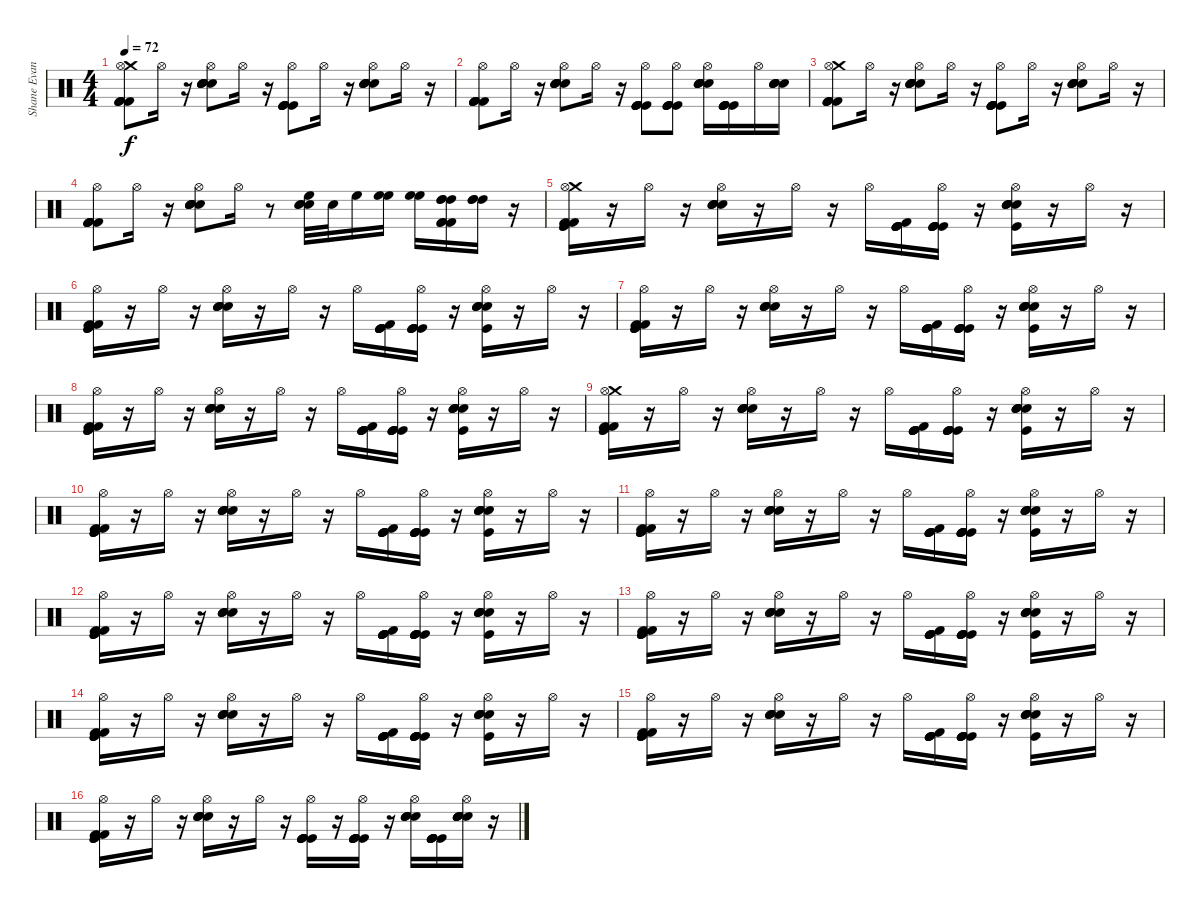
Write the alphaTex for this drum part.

\track ("Shane Evans" "Shane Evan") {instrument percussion}
\staff {score}
\articulation defaults
\ts (4 4)
\tempo 72
\clef neutral
\ks c
("Crash medium (hit)" "Kick (hit) 2" "Kick (hit) 2" "Kick (hit) 2" "Kick (hit) 2" "Hi-Hat (open)").8{dy f} "Hi-Hat (open)".16 r.16 ("Hi-Hat (open)" "Snare (hit) 2" "Snare (hit) 2" "Snare (hit) 2" "Snare (hit) 2" "Snare (hit) 2").8 "Hi-Hat (open)".16 r.16 ("Hi-Hat (open)" "Kick (hit)" "Kick (hit)" "Kick (hit)" "Kick (hit)" "Kick (hit)").8 "Hi-Hat (open)".16 r.16 ("Hi-Hat (open)" "Snare (hit) 2" "Snare (hit) 2" "Snare (hit) 2" "Snare (hit) 2" "Snare (hit) 2").8 "Hi-Hat (open)".16 r.16 |
("Kick (hit) 2" "Kick (hit) 2" "Kick (hit) 2" "Kick (hit) 2" "Hi-Hat (open)" "Kick (hit) 2").8 "Hi-Hat (open)".16 r.16 ("Hi-Hat (open)" "Snare (hit) 2" "Snare (hit) 2" "Snare (hit) 2" "Snare (hit) 2" "Snare (hit) 2").8 "Hi-Hat (open)".16 r.16 ("Hi-Hat (open)" "Kick (hit)" "Kick (hit)" "Kick (hit)" "Kick (hit)" "Kick (hit)").8 ("Hi-Hat (open)" "Kick (hit)" "Kick (hit)" "Kick (hit)" "Kick (hit)").8 ("Hi-Hat (open)" "Snare (hit) 2" "Snare (hit) 2" "Snare (hit) 2" "Snare (hit) 2" "Snare (hit) 2").16 ("Kick (hit)" "Kick (hit)" "Kick (hit)" "Kick (hit)" "Kick (hit)").16 "Hi-Hat (open)".16 ("Snare (hit) 2" "Snare (hit) 2" "Snare (hit) 2" "Snare (hit) 2").16 |
("Crash medium (hit)" "Kick (hit) 2" "Kick (hit) 2" "Kick (hit) 2" "Kick (hit) 2" "Hi-Hat (open)").8 "Hi-Hat (open)".16 r.16 ("Hi-Hat (open)" "Snare (hit) 2" "Snare (hit) 2" "Snare (hit) 2" "Snare (hit) 2" "Snare (hit) 2").8 "Hi-Hat (open)".16 r.16 ("Hi-Hat (open)" "Kick (hit)" "Kick (hit)" "Kick (hit)" "Kick (hit)" "Kick (hit)").8 "Hi-Hat (open)".16 r.16 ("Hi-Hat (open)" "Snare (hit) 2" "Snare (hit) 2" "Snare (hit) 2" "Snare (hit) 2" "Snare (hit) 2").8 "Hi-Hat (open)".16 r.16 |
("Kick (hit) 2" "Kick (hit) 2" "Kick (hit) 2" "Kick (hit) 2" "Hi-Hat (open)" "Kick (hit) 2").8 "Hi-Hat (open)".16 r.16 ("Hi-Hat (open)" "Snare (hit) 2" "Snare (hit) 2" "Snare (hit) 2" "Snare (hit) 2" "Snare (hit) 2").8 "Hi-Hat (open)".16 r.8 ("Snare (hit) 2" "High Floor Tom (hit)" "Snare (hit) 2" "Snare (hit) 2").32 "Snare (hit) 2".32 "High Floor Tom (hit)".16 ("High Floor Tom (hit)" "High Floor Tom (hit)").16 ("High Floor Tom (hit)" "High Floor Tom (hit)").16 ("High Tom (hit)" "High Tom (hit)" "High Tom (hit)" "Kick (hit) 2" "Kick (hit) 2" "Kick (hit) 2").16 ("High Tom (hit)" "High Tom (hit)" "High Tom (hit)").16 r.16 |
("Crash medium (hit)" "Kick (hit) 2" "Kick (hit) 2" "Hi-Hat (open)" "Kick (hit)" "Kick (hit)").16 r.16 "Hi-Hat (open)".16 r.16 ("Hi-Hat (open)" "Snare (hit) 2" "Snare (hit) 2" "Snare (hit) 2" "Snare (hit) 2").16 r.16 "Hi-Hat (open)".16 r.16 "Hi-Hat (open)".16 ("Kick (hit)" "Kick (hit)" "Kick (hit)" "Kick (hit)" "Kick (hit) 2").16 ("Hi-Hat (open)" "Kick (hit)" "Kick (hit)" "Kick (hit)" "Kick (hit)" "Kick (hit)").16 r.16 ("Hi-Hat (open)" "Snare (hit) 2" "Snare (hit) 2" "Snare (hit) 2" "Snare (hit) 2" "Kick (hit)").16 r.16 "Hi-Hat (open)".16 r.16 |
("Kick (hit) 2" "Kick (hit) 2" "Hi-Hat (open)" "Kick (hit)" "Kick (hit)" "Kick (hit)").16 r.16 "Hi-Hat (open)".16 r.16 ("Hi-Hat (open)" "Snare (hit) 2" "Snare (hit) 2" "Snare (hit) 2" "Snare (hit) 2").16 r.16 "Hi-Hat (open)".16 r.16 "Hi-Hat (open)".16 ("Kick (hit)" "Kick (hit)" "Kick (hit)" "Kick (hit)" "Kick (hit) 2").16 ("Hi-Hat (open)" "Kick (hit)" "Kick (hit)" "Kick (hit)" "Kick (hit)" "Kick (hit)").16 r.16 ("Hi-Hat (open)" "Snare (hit) 2" "Snare (hit) 2" "Snare (hit) 2" "Snare (hit) 2" "Kick (hit)").16 r.16 "Hi-Hat (open)".16 r.16 |
("Kick (hit) 2" "Kick (hit) 2" "Hi-Hat (open)" "Kick (hit)" "Kick (hit)" "Kick (hit)").16 r.16 "Hi-Hat (open)".16 r.16 ("Hi-Hat (open)" "Snare (hit) 2" "Snare (hit) 2" "Snare (hit) 2" "Snare (hit) 2").16 r.16 "Hi-Hat (open)".16 r.16 "Hi-Hat (open)".16 ("Kick (hit)" "Kick (hit)" "Kick (hit)" "Kick (hit)" "Kick (hit) 2").16 ("Hi-Hat (open)" "Kick (hit)" "Kick (hit)" "Kick (hit)" "Kick (hit)" "Kick (hit)").16 r.16 ("Hi-Hat (open)" "Snare (hit) 2" "Snare (hit) 2" "Snare (hit) 2" "Snare (hit) 2" "Kick (hit)").16 r.16 "Hi-Hat (open)".16 r.16 |
("Kick (hit) 2" "Kick (hit) 2" "Hi-Hat (open)" "Kick (hit)" "Kick (hit)" "Kick (hit)").16 r.16 "Hi-Hat (open)".16 r.16 ("Hi-Hat (open)" "Snare (hit) 2" "Snare (hit) 2" "Snare (hit) 2" "Snare (hit) 2").16 r.16 "Hi-Hat (open)".16 r.16 "Hi-Hat (open)".16 ("Kick (hit)" "Kick (hit)" "Kick (hit)" "Kick (hit)" "Kick (hit) 2").16 ("Hi-Hat (open)" "Kick (hit)" "Kick (hit)" "Kick (hit)" "Kick (hit)" "Kick (hit)").16 r.16 ("Hi-Hat (open)" "Snare (hit) 2" "Snare (hit) 2" "Snare (hit) 2" "Snare (hit) 2" "Kick (hit)").16 r.16 "Hi-Hat (open)".16 r.16 |
("Crash medium (hit)" "Kick (hit) 2" "Kick (hit) 2" "Hi-Hat (open)" "Kick (hit)" "Kick (hit)").16 r.16 "Hi-Hat (open)".16 r.16 ("Hi-Hat (open)" "Snare (hit) 2" "Snare (hit) 2" "Snare (hit) 2" "Snare (hit) 2").16 r.16 "Hi-Hat (open)".16 r.16 "Hi-Hat (open)".16 ("Kick (hit)" "Kick (hit)" "Kick (hit)" "Kick (hit)" "Kick (hit) 2").16 ("Hi-Hat (open)" "Kick (hit)" "Kick (hit)" "Kick (hit)" "Kick (hit)" "Kick (hit)").16 r.16 ("Hi-Hat (open)" "Snare (hit) 2" "Snare (hit) 2" "Snare (hit) 2" "Snare (hit) 2" "Kick (hit)").16 r.16 "Hi-Hat (open)".16 r.16 |
("Kick (hit) 2" "Kick (hit) 2" "Hi-Hat (open)" "Kick (hit)" "Kick (hit)" "Kick (hit)").16 r.16 "Hi-Hat (open)".16 r.16 ("Hi-Hat (open)" "Snare (hit) 2" "Snare (hit) 2" "Snare (hit) 2" "Snare (hit) 2").16 r.16 "Hi-Hat (open)".16 r.16 "Hi-Hat (open)".16 ("Kick (hit)" "Kick (hit)" "Kick (hit)" "Kick (hit)" "Kick (hit) 2").16 ("Hi-Hat (open)" "Kick (hit)" "Kick (hit)" "Kick (hit)" "Kick (hit)" "Kick (hit)").16 r.16 ("Hi-Hat (open)" "Snare (hit) 2" "Snare (hit) 2" "Snare (hit) 2" "Snare (hit) 2" "Kick (hit)").16 r.16 "Hi-Hat (open)".16 r.16 |
("Kick (hit) 2" "Kick (hit) 2" "Hi-Hat (open)" "Kick (hit)" "Kick (hit)" "Kick (hit)").16 r.16 "Hi-Hat (open)".16 r.16 ("Hi-Hat (open)" "Snare (hit) 2" "Snare (hit) 2" "Snare (hit) 2" "Snare (hit) 2").16 r.16 "Hi-Hat (open)".16 r.16 "Hi-Hat (open)".16 ("Kick (hit)" "Kick (hit)" "Kick (hit)" "Kick (hit)" "Kick (hit) 2").16 ("Hi-Hat (open)" "Kick (hit)" "Kick (hit)" "Kick (hit)" "Kick (hit)" "Kick (hit)").16 r.16 ("Hi-Hat (open)" "Snare (hit) 2" "Snare (hit) 2" "Snare (hit) 2" "Snare (hit) 2" "Kick (hit)").16 r.16 "Hi-Hat (open)".16 r.16 |
("Kick (hit) 2" "Kick (hit) 2" "Hi-Hat (open)" "Kick (hit)" "Kick (hit)" "Kick (hit)").16 r.16 "Hi-Hat (open)".16 r.16 ("Hi-Hat (open)" "Snare (hit) 2" "Snare (hit) 2" "Snare (hit) 2" "Snare (hit) 2").16 r.16 "Hi-Hat (open)".16 r.16 "Hi-Hat (open)".16 ("Kick (hit)" "Kick (hit)" "Kick (hit)" "Kick (hit)" "Kick (hit) 2").16 ("Hi-Hat (open)" "Kick (hit)" "Kick (hit)" "Kick (hit)" "Kick (hit)" "Kick (hit)").16 r.16 ("Hi-Hat (open)" "Snare (hit) 2" "Snare (hit) 2" "Snare (hit) 2" "Snare (hit) 2" "Kick (hit)").16 r.16 "Hi-Hat (open)".16 r.16 |
("Kick (hit) 2" "Kick (hit) 2" "Hi-Hat (open)" "Kick (hit)" "Kick (hit)" "Kick (hit)").16 r.16 "Hi-Hat (open)".16 r.16 ("Hi-Hat (open)" "Snare (hit) 2" "Snare (hit) 2" "Snare (hit) 2" "Snare (hit) 2").16 r.16 "Hi-Hat (open)".16 r.16 "Hi-Hat (open)".16 ("Kick (hit)" "Kick (hit)" "Kick (hit)" "Kick (hit)" "Kick (hit) 2").16 ("Hi-Hat (open)" "Kick (hit)" "Kick (hit)" "Kick (hit)" "Kick (hit)" "Kick (hit)").16 r.16 ("Hi-Hat (open)" "Snare (hit) 2" "Snare (hit) 2" "Snare (hit) 2" "Snare (hit) 2" "Kick (hit)").16 r.16 "Hi-Hat (open)".16 r.16 |
("Kick (hit) 2" "Kick (hit) 2" "Hi-Hat (open)" "Kick (hit)" "Kick (hit)" "Kick (hit)").16 r.16 "Hi-Hat (open)".16 r.16 ("Hi-Hat (open)" "Snare (hit) 2" "Snare (hit) 2" "Snare (hit) 2" "Snare (hit) 2").16 r.16 "Hi-Hat (open)".16 r.16 "Hi-Hat (open)".16 ("Kick (hit)" "Kick (hit)" "Kick (hit)" "Kick (hit)" "Kick (hit) 2").16 ("Hi-Hat (open)" "Kick (hit)" "Kick (hit)" "Kick (hit)" "Kick (hit)" "Kick (hit)").16 r.16 ("Hi-Hat (open)" "Snare (hit) 2" "Snare (hit) 2" "Snare (hit) 2" "Snare (hit) 2" "Kick (hit)").16 r.16 "Hi-Hat (open)".16 r.16 |
("Kick (hit) 2" "Kick (hit) 2" "Hi-Hat (open)" "Kick (hit)" "Kick (hit)" "Kick (hit)").16 r.16 "Hi-Hat (open)".16 r.16 ("Hi-Hat (open)" "Snare (hit) 2" "Snare (hit) 2" "Snare (hit) 2" "Snare (hit) 2").16 r.16 "Hi-Hat (open)".16 r.16 "Hi-Hat (open)".16 ("Kick (hit)" "Kick (hit)" "Kick (hit)" "Kick (hit)" "Kick (hit) 2").16 ("Hi-Hat (open)" "Kick (hit)" "Kick (hit)" "Kick (hit)" "Kick (hit)" "Kick (hit)").16 r.16 ("Hi-Hat (open)" "Snare (hit) 2" "Snare (hit) 2" "Snare (hit) 2" "Snare (hit) 2" "Kick (hit)").16 r.16 "Hi-Hat (open)".16 r.16 |
("Kick (hit) 2" "Kick (hit) 2" "Hi-Hat (open)" "Kick (hit)" "Kick (hit)" "Kick (hit)").16 r.16 "Hi-Hat (open)".16 r.16 ("Hi-Hat (open)" "Snare (hit) 2" "Snare (hit) 2" "Snare (hit) 2" "Snare (hit) 2").16 r.16 "Hi-Hat (open)".16 r.16 ("Hi-Hat (open)" "Kick (hit)" "Kick (hit)" "Kick (hit)" "Kick (hit)" "Kick (hit)").16 r.16 ("Hi-Hat (open)" "Kick (hit)" "Kick (hit)" "Kick (hit)" "Kick (hit)" "Kick (hit)").16 r.16 ("Hi-Hat (open)" "Snare (hit) 2" "Snare (hit) 2" "Snare (hit) 2" "Snare (hit) 2").16 ("Kick (hit)" "Kick (hit)" "Kick (hit)" "Kick (hit)" "Kick (hit)").16 ("Hi-Hat (open)" "Snare (hit) 2" "Snare (hit) 2" "Snare (hit) 2" "Snare (hit) 2" "Snare (hit) 2").16 r.16
